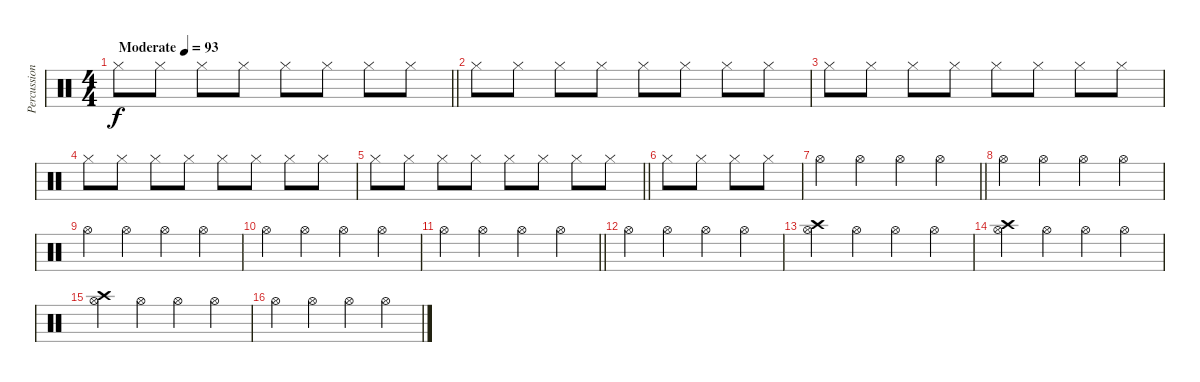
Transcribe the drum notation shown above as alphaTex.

\track ("Percussion" "Percussion") {instrument percussion}
\staff {score}
\articulation defaults
\ts (4 4)
\tempo (93 "Moderate")
\clef neutral
\barLineRight lightlight
\ks c "Hi-Hat (closed)".8{dy f} "Hi-Hat (closed)".8 "Hi-Hat (closed)".8 "Hi-Hat (closed)".8 "Hi-Hat (closed)".8 "Hi-Hat (closed)".8 "Hi-Hat (closed)".8 "Hi-Hat (closed)".8
|
"Hi-Hat (closed)".8 "Hi-Hat (closed)".8 "Hi-Hat (closed)".8 "Hi-Hat (closed)".8 "Hi-Hat (closed)".8 "Hi-Hat (closed)".8 "Hi-Hat (closed)".8 "Hi-Hat (closed)".8 |
"Hi-Hat (closed)".8 "Hi-Hat (closed)".8 "Hi-Hat (closed)".8 "Hi-Hat (closed)".8 "Hi-Hat (closed)".8 "Hi-Hat (closed)".8 "Hi-Hat (closed)".8 "Hi-Hat (closed)".8 |
"Hi-Hat (closed)".8 "Hi-Hat (closed)".8 "Hi-Hat (closed)".8 "Hi-Hat (closed)".8 "Hi-Hat (closed)".8 "Hi-Hat (closed)".8 "Hi-Hat (closed)".8 "Hi-Hat (closed)".8 |
\barLineRight lightlight "Hi-Hat (closed)".8 "Hi-Hat (closed)".8 "Hi-Hat (closed)".8 "Hi-Hat (closed)".8 "Hi-Hat (closed)".8 "Hi-Hat (closed)".8 "Hi-Hat (closed)".8 "Hi-Hat (closed)".8
|
"Hi-Hat (closed)".8 "Hi-Hat (closed)".8 "Hi-Hat (closed)".8 "Hi-Hat (closed)".8 |
\barLineRight lightlight "Hi-Hat (open)".4 "Hi-Hat (open)".4 "Hi-Hat (open)".4 "Hi-Hat (open)".4
|
"Hi-Hat (open)".4 "Hi-Hat (open)".4 "Hi-Hat (open)".4 "Hi-Hat (open)".4 |
"Hi-Hat (open)".4 "Hi-Hat (open)".4 "Hi-Hat (open)".4 "Hi-Hat (open)".4 |
"Hi-Hat (open)".4 "Hi-Hat (open)".4 "Hi-Hat (open)".4 "Hi-Hat (open)".4 |
\barLineRight lightlight "Hi-Hat (open)".4 "Hi-Hat (open)".4 "Hi-Hat (open)".4 "Hi-Hat (open)".4
|
"Hi-Hat (open)".4 "Hi-Hat (open)".4 "Hi-Hat (open)".4 "Hi-Hat (open)".4 |
("Crash high (hit)" "Hi-Hat (open)").4 "Hi-Hat (open)".4 "Hi-Hat (open)".4 "Hi-Hat (open)".4 |
("Crash high (hit)" "Hi-Hat (open)").4 "Hi-Hat (open)".4 "Hi-Hat (open)".4 "Hi-Hat (open)".4 |
("Crash high (hit)" "Hi-Hat (open)").4 "Hi-Hat (open)".4 "Hi-Hat (open)".4 "Hi-Hat (open)".4 |
"Hi-Hat (open)".4 "Hi-Hat (open)".4 "Hi-Hat (open)".4 "Hi-Hat (open)".4
